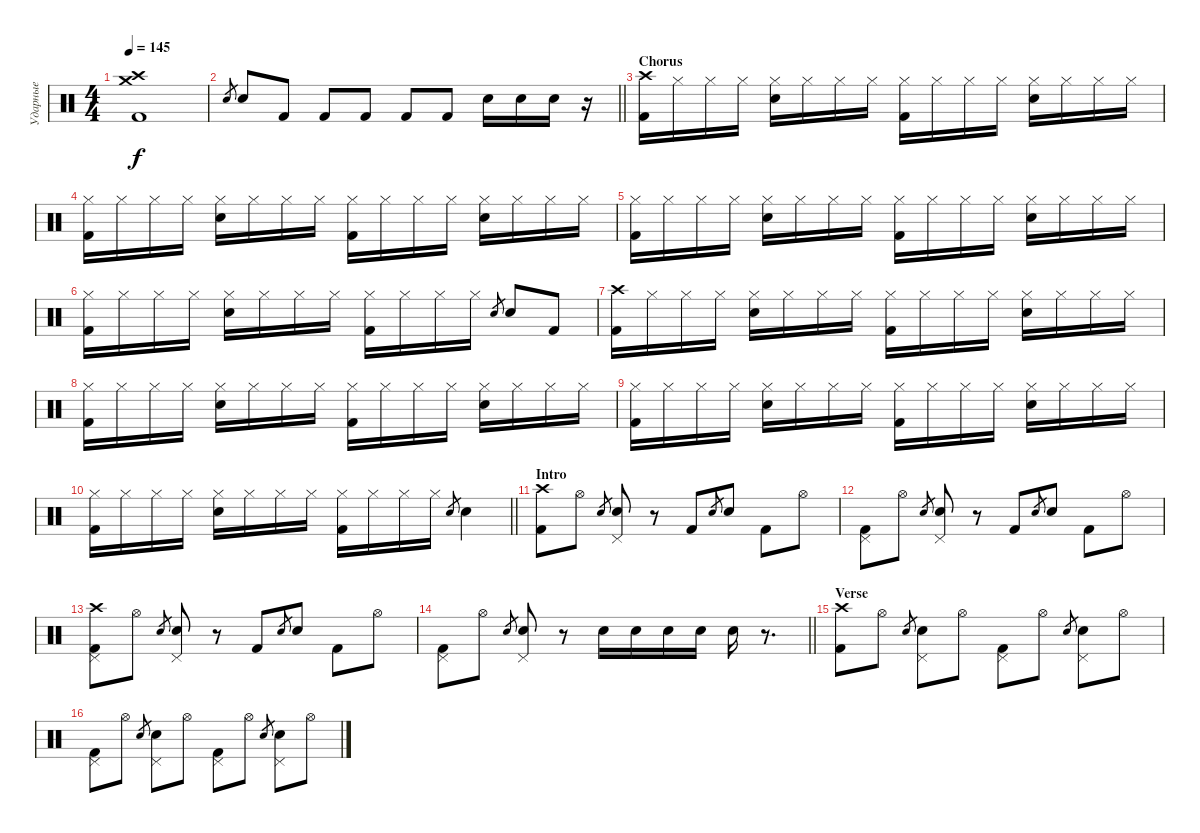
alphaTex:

\track ("Ударные" "Ударные") {instrument percussion}
\staff {score}
\articulation defaults
\ts (4 4)
\tempo 145
\clef neutral
\ks c
("Crash medium (hit)" "Crash high (hit)" "Kick (hit) 2").1{dy f} |
\barLineRight lightlight "Electric Snare (hit)".8{gr} "Electric Snare (hit)".8 "Kick (hit) 2".8 "Kick (hit) 2".8 "Kick (hit) 2".8 "Kick (hit) 2".8 "Kick (hit) 2".8 "Electric Snare (hit)".16 "Electric Snare (hit)".16 "Electric Snare (hit)".16
r.16 |
\section ("" "Chorus")
("Crash high (hit)" "Kick (hit) 2").16 "Hi-Hat (closed)".16 "Hi-Hat (closed)".16 "Hi-Hat (closed)".16 ("Hi-Hat (closed)" "Electric Snare (hit)").16 "Hi-Hat (closed)".16 "Hi-Hat (closed)".16 "Hi-Hat (closed)".16 ("Hi-Hat (closed)" "Kick (hit) 2").16 "Hi-Hat (closed)".16 "Hi-Hat (closed)".16 "Hi-Hat (closed)".16 ("Hi-Hat (closed)" "Electric Snare (hit)").16 "Hi-Hat (closed)".16 "Hi-Hat (closed)".16 "Hi-Hat (closed)".16 |
("Hi-Hat (closed)" "Kick (hit) 2").16 "Hi-Hat (closed)".16 "Hi-Hat (closed)".16 "Hi-Hat (closed)".16 ("Hi-Hat (closed)" "Electric Snare (hit)").16 "Hi-Hat (closed)".16 "Hi-Hat (closed)".16 "Hi-Hat (closed)".16 ("Hi-Hat (closed)" "Kick (hit) 2").16 "Hi-Hat (closed)".16 "Hi-Hat (closed)".16 "Hi-Hat (closed)".16 ("Hi-Hat (closed)" "Electric Snare (hit)").16 "Hi-Hat (closed)".16 "Hi-Hat (closed)".16 "Hi-Hat (closed)".16 |
("Hi-Hat (closed)" "Kick (hit) 2").16 "Hi-Hat (closed)".16 "Hi-Hat (closed)".16 "Hi-Hat (closed)".16 ("Hi-Hat (closed)" "Electric Snare (hit)").16 "Hi-Hat (closed)".16 "Hi-Hat (closed)".16 "Hi-Hat (closed)".16 ("Hi-Hat (closed)" "Kick (hit) 2").16 "Hi-Hat (closed)".16 "Hi-Hat (closed)".16 "Hi-Hat (closed)".16 ("Hi-Hat (closed)" "Electric Snare (hit)").16 "Hi-Hat (closed)".16 "Hi-Hat (closed)".16 "Hi-Hat (closed)".16 |
("Hi-Hat (closed)" "Kick (hit) 2").16 "Hi-Hat (closed)".16 "Hi-Hat (closed)".16 "Hi-Hat (closed)".16 ("Hi-Hat (closed)" "Electric Snare (hit)").16 "Hi-Hat (closed)".16 "Hi-Hat (closed)".16 "Hi-Hat (closed)".16 ("Hi-Hat (closed)" "Kick (hit) 2").16 "Hi-Hat (closed)".16 "Hi-Hat (closed)".16 "Hi-Hat (closed)".16 "Electric Snare (hit)".8{gr} "Electric Snare (hit)".8 "Kick (hit) 2".8 |
("Crash high (hit)" "Kick (hit) 2").16 "Hi-Hat (closed)".16 "Hi-Hat (closed)".16 "Hi-Hat (closed)".16 ("Hi-Hat (closed)" "Electric Snare (hit)").16 "Hi-Hat (closed)".16 "Hi-Hat (closed)".16 "Hi-Hat (closed)".16 ("Hi-Hat (closed)" "Kick (hit) 2").16 "Hi-Hat (closed)".16 "Hi-Hat (closed)".16 "Hi-Hat (closed)".16 ("Hi-Hat (closed)" "Electric Snare (hit)").16 "Hi-Hat (closed)".16 "Hi-Hat (closed)".16 "Hi-Hat (closed)".16 |
("Hi-Hat (closed)" "Kick (hit) 2").16 "Hi-Hat (closed)".16 "Hi-Hat (closed)".16 "Hi-Hat (closed)".16 ("Hi-Hat (closed)" "Electric Snare (hit)").16 "Hi-Hat (closed)".16 "Hi-Hat (closed)".16 "Hi-Hat (closed)".16 ("Hi-Hat (closed)" "Kick (hit) 2").16 "Hi-Hat (closed)".16 "Hi-Hat (closed)".16 "Hi-Hat (closed)".16 ("Hi-Hat (closed)" "Electric Snare (hit)").16 "Hi-Hat (closed)".16 "Hi-Hat (closed)".16 "Hi-Hat (closed)".16 |
("Hi-Hat (closed)" "Kick (hit) 2").16 "Hi-Hat (closed)".16 "Hi-Hat (closed)".16 "Hi-Hat (closed)".16 ("Hi-Hat (closed)" "Electric Snare (hit)").16 "Hi-Hat (closed)".16 "Hi-Hat (closed)".16 "Hi-Hat (closed)".16 ("Hi-Hat (closed)" "Kick (hit) 2").16 "Hi-Hat (closed)".16 "Hi-Hat (closed)".16 "Hi-Hat (closed)".16 ("Hi-Hat (closed)" "Electric Snare (hit)").16 "Hi-Hat (closed)".16 "Hi-Hat (closed)".16 "Hi-Hat (closed)".16 |
\barLineRight lightlight
("Hi-Hat (closed)" "Kick (hit) 2").16 "Hi-Hat (closed)".16 "Hi-Hat (closed)".16 "Hi-Hat (closed)".16 ("Hi-Hat (closed)" "Electric Snare (hit)").16 "Hi-Hat (closed)".16 "Hi-Hat (closed)".16 "Hi-Hat (closed)".16 ("Hi-Hat (closed)" "Kick (hit) 2").16 "Hi-Hat (closed)".16 "Hi-Hat (closed)".16 "Hi-Hat (closed)".16 "Electric Snare (hit)".8{gr} "Electric Snare (hit)".4 |
\section ("" "Intro")
("Crash high (hit)" "Kick (hit) 2").8 "Hi-Hat (open)".8 "Electric Snare (hit)".8{gr} ("Pedal Hi-Hat (hit)" "Electric Snare (hit)").8 r.8 "Kick (hit) 2".8 "Electric Snare (hit)".8{gr} "Electric Snare (hit)".8 "Kick (hit) 2".8 "Hi-Hat (open)".8 |
("Pedal Hi-Hat (hit)" "Kick (hit) 2").8 "Hi-Hat (open)".8 "Electric Snare (hit)".8{gr} ("Pedal Hi-Hat (hit)" "Electric Snare (hit)").8 r.8 "Kick (hit) 2".8 "Electric Snare (hit)".8{gr} "Electric Snare (hit)".8 "Kick (hit) 2".8 "Hi-Hat (open)".8 |
("Crash high (hit)" "Pedal Hi-Hat (hit)" "Kick (hit) 2").8 "Hi-Hat (open)".8 "Electric Snare (hit)".8{gr} ("Pedal Hi-Hat (hit)" "Electric Snare (hit)").8 r.8 "Kick (hit) 2".8 "Electric Snare (hit)".8{gr} "Electric Snare (hit)".8 "Kick (hit) 2".8 "Hi-Hat (open)".8 |
\barLineRight lightlight
("Pedal Hi-Hat (hit)" "Kick (hit) 2").8 "Hi-Hat (open)".8 "Electric Snare (hit)".8{gr} ("Pedal Hi-Hat (hit)" "Electric Snare (hit)").8 r.8 "Electric Snare (hit)".16 "Electric Snare (hit)".16 "Electric Snare (hit)".16 "Electric Snare (hit)".16 "Electric Snare (hit)".16 r.8{d} |
\section ("" "Verse")
("Crash high (hit)" "Kick (hit) 2").8 "Hi-Hat (open)".8 "Electric Snare (hit)".8{gr} ("Pedal Hi-Hat (hit)" "Electric Snare (hit)").8 "Hi-Hat (open)".8 ("Pedal Hi-Hat (hit)" "Kick (hit) 2").8 "Hi-Hat (open)".8 "Electric Snare (hit)".8{gr} ("Pedal Hi-Hat (hit)" "Electric Snare (hit)").8 "Hi-Hat (open)".8 |
("Pedal Hi-Hat (hit)" "Kick (hit) 2").8 "Hi-Hat (open)".8 "Electric Snare (hit)".8{gr} ("Pedal Hi-Hat (hit)" "Electric Snare (hit)").8 "Hi-Hat (open)".8 ("Pedal Hi-Hat (hit)" "Kick (hit) 2").8 "Hi-Hat (open)".8 "Electric Snare (hit)".8{gr} ("Pedal Hi-Hat (hit)" "Electric Snare (hit)").8 "Hi-Hat (open)".8
